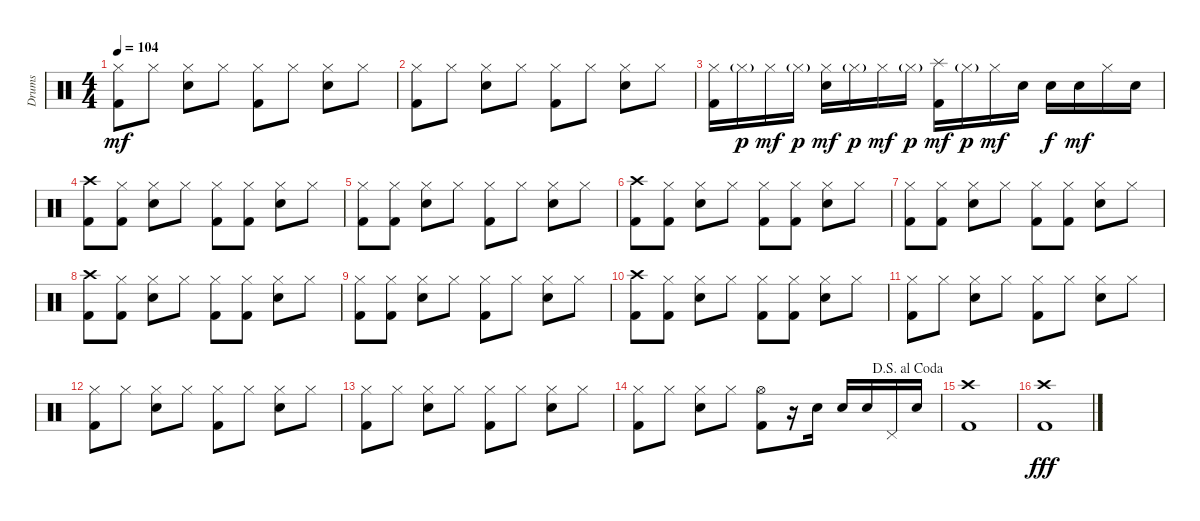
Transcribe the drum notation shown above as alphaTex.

\track ("Drums" "Drums") {instrument percussion}
\staff {score}
\articulation defaults
\ts (4 4)
\tempo 104
\clef neutral
\ks c
("Hi-Hat (closed)" "Kick (hit) 2").8{dy mf} "Hi-Hat (closed)".8 ("Hi-Hat (closed)" "Electric Snare (hit)").8 "Hi-Hat (closed)".8 ("Hi-Hat (closed)" "Kick (hit) 2").8 "Hi-Hat (closed)".8 ("Hi-Hat (closed)" "Electric Snare (hit)").8 "Hi-Hat (closed)".8 |
("Hi-Hat (closed)" "Kick (hit) 2").8 "Hi-Hat (closed)".8 ("Hi-Hat (closed)" "Electric Snare (hit)").8 "Hi-Hat (closed)".8 ("Hi-Hat (closed)" "Kick (hit) 2").8 "Hi-Hat (closed)".8 ("Hi-Hat (closed)" "Electric Snare (hit)").8 "Hi-Hat (closed)".8 |
("Hi-Hat (closed)" "Kick (hit) 2").16 "Hi-Hat (closed)"{g}.16{dy p} "Hi-Hat (closed)".16{dy mf} "Hi-Hat (closed)"{g}.16{dy p} ("Hi-Hat (closed)" "Electric Snare (hit)").16{dy mf} "Hi-Hat (closed)"{g}.16{dy p} "Hi-Hat (closed)".16{dy mf} "Hi-Hat (closed)"{g}.16{dy p} ("Splash (hit)" "Kick (hit) 2").16{dy mf} "Hi-Hat (closed)"{g}.16{dy p} "Hi-Hat (closed)".16{dy mf} "Electric Snare (hit)".16 "Electric Snare (hit)".16{dy f} "Electric Snare (hit)".16{dy mf} "Hi-Hat (closed)".16 "Electric Snare (hit)".16 |
("Crash high (hit)" "Kick (hit) 2").8 ("Hi-Hat (closed)" "Kick (hit) 2").8 ("Hi-Hat (closed)" "Electric Snare (hit)").8 "Hi-Hat (closed)".8 ("Hi-Hat (closed)" "Kick (hit) 2").8 ("Hi-Hat (closed)" "Kick (hit) 2").8 ("Hi-Hat (closed)" "Electric Snare (hit)").8 "Hi-Hat (closed)".8 |
("Hi-Hat (closed)" "Kick (hit) 2").8 ("Hi-Hat (closed)" "Kick (hit) 2").8 ("Hi-Hat (closed)" "Electric Snare (hit)").8 "Hi-Hat (closed)".8 ("Hi-Hat (closed)" "Kick (hit) 2").8 "Hi-Hat (closed)".8 ("Hi-Hat (closed)" "Electric Snare (hit)").8 "Hi-Hat (closed)".8 |
("Crash high (hit)" "Kick (hit) 2").8 ("Hi-Hat (closed)" "Kick (hit) 2").8 ("Hi-Hat (closed)" "Electric Snare (hit)").8 "Hi-Hat (closed)".8 ("Hi-Hat (closed)" "Kick (hit) 2").8 ("Hi-Hat (closed)" "Kick (hit) 2").8 ("Hi-Hat (closed)" "Electric Snare (hit)").8 "Hi-Hat (closed)".8 |
("Hi-Hat (closed)" "Kick (hit) 2").8 ("Hi-Hat (closed)" "Kick (hit) 2").8 ("Hi-Hat (closed)" "Electric Snare (hit)").8 "Hi-Hat (closed)".8 ("Hi-Hat (closed)" "Kick (hit) 2").8 ("Hi-Hat (closed)" "Kick (hit) 2").8 ("Hi-Hat (closed)" "Electric Snare (hit)").8 "Hi-Hat (closed)".8 |
("Crash high (hit)" "Kick (hit) 2").8 ("Hi-Hat (closed)" "Kick (hit) 2").8 ("Hi-Hat (closed)" "Electric Snare (hit)").8 "Hi-Hat (closed)".8 ("Hi-Hat (closed)" "Kick (hit) 2").8 ("Hi-Hat (closed)" "Kick (hit) 2").8 ("Hi-Hat (closed)" "Electric Snare (hit)").8 "Hi-Hat (closed)".8 |
("Hi-Hat (closed)" "Kick (hit) 2").8 ("Hi-Hat (closed)" "Kick (hit) 2").8 ("Hi-Hat (closed)" "Electric Snare (hit)").8 "Hi-Hat (closed)".8 ("Hi-Hat (closed)" "Kick (hit) 2").8 "Hi-Hat (closed)".8 ("Hi-Hat (closed)" "Electric Snare (hit)").8 "Hi-Hat (closed)".8 |
("Crash high (hit)" "Kick (hit) 2").8 ("Hi-Hat (closed)" "Kick (hit) 2").8 ("Hi-Hat (closed)" "Electric Snare (hit)").8 "Hi-Hat (closed)".8 ("Hi-Hat (closed)" "Kick (hit) 2").8 ("Hi-Hat (closed)" "Kick (hit) 2").8 ("Hi-Hat (closed)" "Electric Snare (hit)").8 "Hi-Hat (closed)".8 |
("Hi-Hat (closed)" "Kick (hit) 2").8 "Hi-Hat (closed)".8 ("Hi-Hat (closed)" "Electric Snare (hit)").8 "Hi-Hat (closed)".8 ("Hi-Hat (closed)" "Kick (hit) 2").8 "Hi-Hat (closed)".8 ("Hi-Hat (closed)" "Electric Snare (hit)").8 "Hi-Hat (closed)".8 |
("Hi-Hat (closed)" "Kick (hit) 2").8 "Hi-Hat (closed)".8 ("Hi-Hat (closed)" "Electric Snare (hit)").8 "Hi-Hat (closed)".8 ("Hi-Hat (closed)" "Kick (hit) 2").8 "Hi-Hat (closed)".8 ("Hi-Hat (closed)" "Electric Snare (hit)").8 "Hi-Hat (closed)".8 |
("Hi-Hat (closed)" "Kick (hit) 2").8 "Hi-Hat (closed)".8 ("Hi-Hat (closed)" "Electric Snare (hit)").8 "Hi-Hat (closed)".8 ("Hi-Hat (closed)" "Kick (hit) 2").8 "Hi-Hat (closed)".8 ("Hi-Hat (closed)" "Electric Snare (hit)").8 "Hi-Hat (closed)".8 |
\jump dalsegnoalcoda
("Hi-Hat (closed)" "Kick (hit) 2").8 "Hi-Hat (closed)".8 ("Hi-Hat (closed)" "Electric Snare (hit)").8 "Hi-Hat (closed)".8 ("Hi-Hat (open)" "Kick (hit) 2").8 r.16 "Electric Snare (hit)".16 "Electric Snare (hit)".16 "Electric Snare (hit)".16 "Pedal Hi-Hat (hit)".16 "Electric Snare (hit)".16 |
("Crash high (hit)" "Kick (hit) 2").1 |
("Crash high (hit)" "Kick (hit) 2").1{dy fff}
